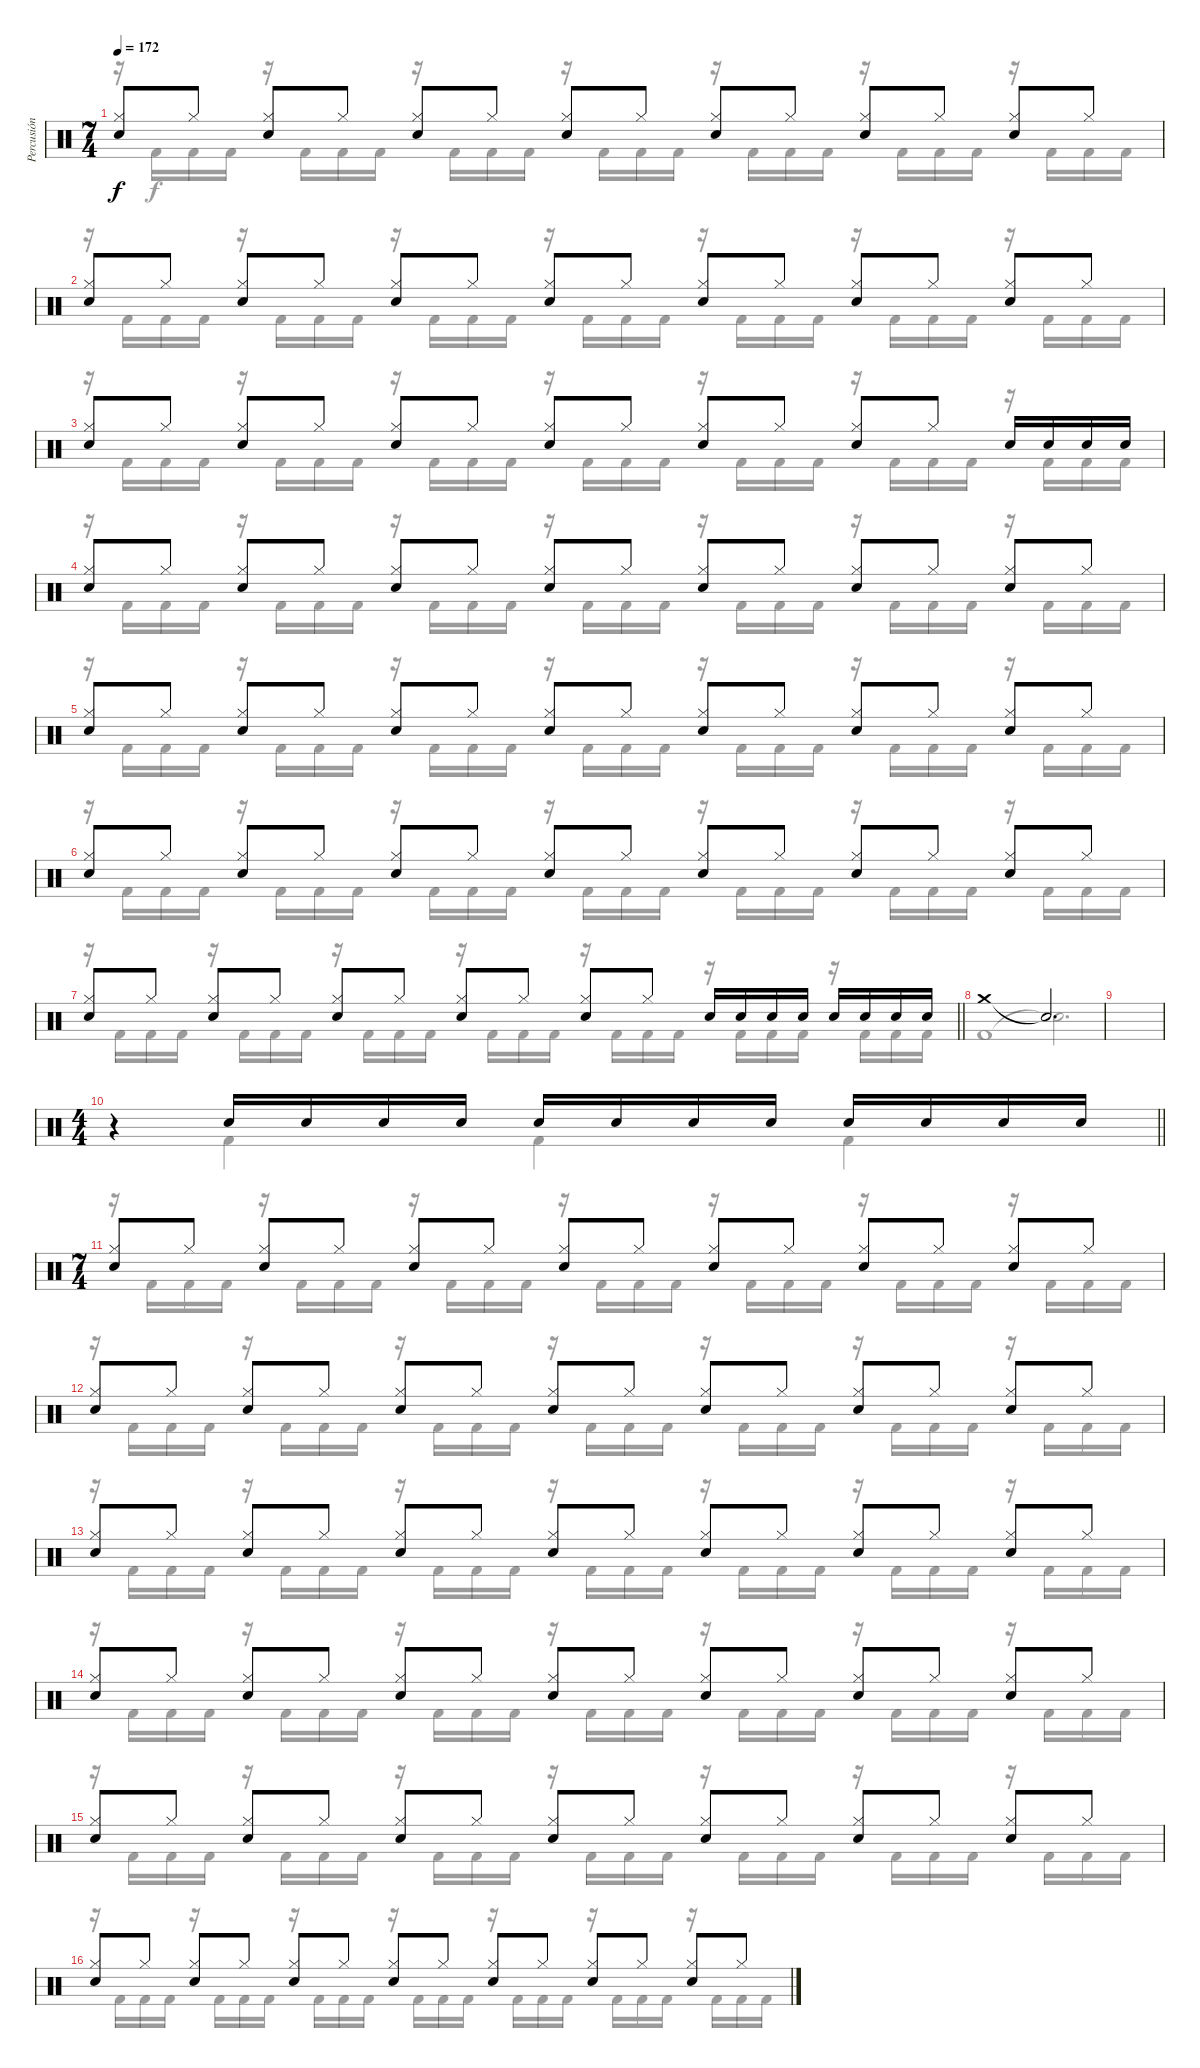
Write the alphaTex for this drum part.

\track ("Percusión" "Percusión") {instrument percussion}
\staff {score}
\articulation defaults
\voice
\ts (7 4)
\tempo 172
\clef neutral
\ks c
("Hi-Hat (closed)" "Snare (hit) 2").8{dy f} "Hi-Hat (closed)".8 ("Hi-Hat (closed)" "Snare (hit) 2").8 "Hi-Hat (closed)".8 ("Hi-Hat (closed)" "Snare (hit) 2").8 "Hi-Hat (closed)".8 ("Hi-Hat (closed)" "Snare (hit) 2").8 "Hi-Hat (closed)".8 ("Hi-Hat (closed)" "Snare (hit) 2").8 "Hi-Hat (closed)".8 ("Hi-Hat (closed)" "Snare (hit) 2").8 "Hi-Hat (closed)".8 ("Hi-Hat (closed)" "Snare (hit) 2").8 "Hi-Hat (closed)".8 |
("Hi-Hat (closed)" "Snare (hit) 2").8 "Hi-Hat (closed)".8 ("Hi-Hat (closed)" "Snare (hit) 2").8 "Hi-Hat (closed)".8 ("Hi-Hat (closed)" "Snare (hit) 2").8 "Hi-Hat (closed)".8 ("Hi-Hat (closed)" "Snare (hit) 2").8 "Hi-Hat (closed)".8 ("Hi-Hat (closed)" "Snare (hit) 2").8 "Hi-Hat (closed)".8 ("Hi-Hat (closed)" "Snare (hit) 2").8 "Hi-Hat (closed)".8 ("Hi-Hat (closed)" "Snare (hit) 2").8 "Hi-Hat (closed)".8 |
("Hi-Hat (closed)" "Snare (hit) 2").8 "Hi-Hat (closed)".8 ("Hi-Hat (closed)" "Snare (hit) 2").8 "Hi-Hat (closed)".8 ("Hi-Hat (closed)" "Snare (hit) 2").8 "Hi-Hat (closed)".8 ("Hi-Hat (closed)" "Snare (hit) 2").8 "Hi-Hat (closed)".8 ("Hi-Hat (closed)" "Snare (hit) 2").8 "Hi-Hat (closed)".8 ("Hi-Hat (closed)" "Snare (hit) 2").8 "Hi-Hat (closed)".8 "Snare (hit) 2".16 "Snare (hit) 2".16 "Snare (hit) 2".16 "Snare (hit) 2".16 |
("Hi-Hat (closed)" "Snare (hit) 2").8 "Hi-Hat (closed)".8 ("Hi-Hat (closed)" "Snare (hit) 2").8 "Hi-Hat (closed)".8 ("Hi-Hat (closed)" "Snare (hit) 2").8 "Hi-Hat (closed)".8 ("Hi-Hat (closed)" "Snare (hit) 2").8 "Hi-Hat (closed)".8 ("Hi-Hat (closed)" "Snare (hit) 2").8 "Hi-Hat (closed)".8 ("Hi-Hat (closed)" "Snare (hit) 2").8 "Hi-Hat (closed)".8 ("Hi-Hat (closed)" "Snare (hit) 2").8 "Hi-Hat (closed)".8 |
("Hi-Hat (closed)" "Snare (hit) 2").8 "Hi-Hat (closed)".8 ("Hi-Hat (closed)" "Snare (hit) 2").8 "Hi-Hat (closed)".8 ("Hi-Hat (closed)" "Snare (hit) 2").8 "Hi-Hat (closed)".8 ("Hi-Hat (closed)" "Snare (hit) 2").8 "Hi-Hat (closed)".8 ("Hi-Hat (closed)" "Snare (hit) 2").8 "Hi-Hat (closed)".8 ("Hi-Hat (closed)" "Snare (hit) 2").8 "Hi-Hat (closed)".8 ("Hi-Hat (closed)" "Snare (hit) 2").8 "Hi-Hat (closed)".8 |
("Hi-Hat (closed)" "Snare (hit) 2").8 "Hi-Hat (closed)".8 ("Hi-Hat (closed)" "Snare (hit) 2").8 "Hi-Hat (closed)".8 ("Hi-Hat (closed)" "Snare (hit) 2").8 "Hi-Hat (closed)".8 ("Hi-Hat (closed)" "Snare (hit) 2").8 "Hi-Hat (closed)".8 ("Hi-Hat (closed)" "Snare (hit) 2").8 "Hi-Hat (closed)".8 ("Hi-Hat (closed)" "Snare (hit) 2").8 "Hi-Hat (closed)".8 ("Hi-Hat (closed)" "Snare (hit) 2").8 "Hi-Hat (closed)".8 |
\barLineRight lightlight
("Hi-Hat (closed)" "Snare (hit) 2").8 "Hi-Hat (closed)".8 ("Hi-Hat (closed)" "Snare (hit) 2").8 "Hi-Hat (closed)".8 ("Hi-Hat (closed)" "Snare (hit) 2").8 "Hi-Hat (closed)".8 ("Hi-Hat (closed)" "Snare (hit) 2").8 "Hi-Hat (closed)".8 ("Hi-Hat (closed)" "Snare (hit) 2").8 "Hi-Hat (closed)".8 "Snare (hit) 2".16 "Snare (hit) 2".16 "Snare (hit) 2".16 "Snare (hit) 2".16 "Snare (hit) 2".16 "Snare (hit) 2".16 "Snare (hit) 2".16 "Snare (hit) 2".16 |
"Crash medium (hit)".1 "Snare (hit)"{t}.2{d} |
|
\ts (4 4)
\barLineRight lightlight
r.4 "Snare (hit) 2".16 "Snare (hit) 2".16 "Snare (hit) 2".16 "Snare (hit) 2".16 "Snare (hit) 2".16 "Snare (hit) 2".16 "Snare (hit) 2".16 "Snare (hit) 2".16 "Snare (hit) 2".16 "Snare (hit) 2".16 "Snare (hit) 2".16 "Snare (hit) 2".16 |
\ts (7 4)
("Hi-Hat (closed)" "Snare (hit) 2").8 "Hi-Hat (closed)".8 ("Hi-Hat (closed)" "Snare (hit) 2").8 "Hi-Hat (closed)".8 ("Hi-Hat (closed)" "Snare (hit) 2").8 "Hi-Hat (closed)".8 ("Hi-Hat (closed)" "Snare (hit) 2").8 "Hi-Hat (closed)".8 ("Hi-Hat (closed)" "Snare (hit) 2").8 "Hi-Hat (closed)".8 ("Hi-Hat (closed)" "Snare (hit) 2").8 "Hi-Hat (closed)".8 ("Hi-Hat (closed)" "Snare (hit) 2").8 "Hi-Hat (closed)".8 |
("Hi-Hat (closed)" "Snare (hit) 2").8 "Hi-Hat (closed)".8 ("Hi-Hat (closed)" "Snare (hit) 2").8 "Hi-Hat (closed)".8 ("Hi-Hat (closed)" "Snare (hit) 2").8 "Hi-Hat (closed)".8 ("Hi-Hat (closed)" "Snare (hit) 2").8 "Hi-Hat (closed)".8 ("Hi-Hat (closed)" "Snare (hit) 2").8 "Hi-Hat (closed)".8 ("Hi-Hat (closed)" "Snare (hit) 2").8 "Hi-Hat (closed)".8 ("Hi-Hat (closed)" "Snare (hit) 2").8 "Hi-Hat (closed)".8 |
("Hi-Hat (closed)" "Snare (hit) 2").8 "Hi-Hat (closed)".8 ("Hi-Hat (closed)" "Snare (hit) 2").8 "Hi-Hat (closed)".8 ("Hi-Hat (closed)" "Snare (hit) 2").8 "Hi-Hat (closed)".8 ("Hi-Hat (closed)" "Snare (hit) 2").8 "Hi-Hat (closed)".8 ("Hi-Hat (closed)" "Snare (hit) 2").8 "Hi-Hat (closed)".8 ("Hi-Hat (closed)" "Snare (hit) 2").8 "Hi-Hat (closed)".8 ("Hi-Hat (closed)" "Snare (hit) 2").8 "Hi-Hat (closed)".8 |
("Hi-Hat (closed)" "Snare (hit) 2").8 "Hi-Hat (closed)".8 ("Hi-Hat (closed)" "Snare (hit) 2").8 "Hi-Hat (closed)".8 ("Hi-Hat (closed)" "Snare (hit) 2").8 "Hi-Hat (closed)".8 ("Hi-Hat (closed)" "Snare (hit) 2").8 "Hi-Hat (closed)".8 ("Hi-Hat (closed)" "Snare (hit) 2").8 "Hi-Hat (closed)".8 ("Hi-Hat (closed)" "Snare (hit) 2").8 "Hi-Hat (closed)".8 ("Hi-Hat (closed)" "Snare (hit) 2").8 "Hi-Hat (closed)".8 |
("Hi-Hat (closed)" "Snare (hit) 2").8 "Hi-Hat (closed)".8 ("Hi-Hat (closed)" "Snare (hit) 2").8 "Hi-Hat (closed)".8 ("Hi-Hat (closed)" "Snare (hit) 2").8 "Hi-Hat (closed)".8 ("Hi-Hat (closed)" "Snare (hit) 2").8 "Hi-Hat (closed)".8 ("Hi-Hat (closed)" "Snare (hit) 2").8 "Hi-Hat (closed)".8 ("Hi-Hat (closed)" "Snare (hit) 2").8 "Hi-Hat (closed)".8 ("Hi-Hat (closed)" "Snare (hit) 2").8 "Hi-Hat (closed)".8 |
("Hi-Hat (closed)" "Snare (hit) 2").8 "Hi-Hat (closed)".8 ("Hi-Hat (closed)" "Snare (hit) 2").8 "Hi-Hat (closed)".8 ("Hi-Hat (closed)" "Snare (hit) 2").8 "Hi-Hat (closed)".8 ("Hi-Hat (closed)" "Snare (hit) 2").8 "Hi-Hat (closed)".8 ("Hi-Hat (closed)" "Snare (hit) 2").8 "Hi-Hat (closed)".8 ("Hi-Hat (closed)" "Snare (hit) 2").8 "Hi-Hat (closed)".8 ("Hi-Hat (closed)" "Snare (hit) 2").8 "Hi-Hat (closed)".8
\voice
\clef neutral
\ottava regular
\simile none
\ks c
r.16{dy f} "Kick (hit) 2".16 "Kick (hit) 2".16 "Kick (hit) 2".16 r.16 "Kick (hit) 2".16 "Kick (hit) 2".16 "Kick (hit) 2".16 r.16 "Kick (hit) 2".16 "Kick (hit) 2".16 "Kick (hit) 2".16 r.16 "Kick (hit) 2".16 "Kick (hit) 2".16 "Kick (hit) 2".16 r.16 "Kick (hit) 2".16 "Kick (hit) 2".16 "Kick (hit) 2".16 r.16 "Kick (hit) 2".16 "Kick (hit) 2".16 "Kick (hit) 2".16 r.16 "Kick (hit) 2".16 "Kick (hit) 2".16 "Kick (hit) 2".16 |
r.16 "Kick (hit) 2".16 "Kick (hit) 2".16 "Kick (hit) 2".16 r.16 "Kick (hit) 2".16 "Kick (hit) 2".16 "Kick (hit) 2".16 r.16 "Kick (hit) 2".16 "Kick (hit) 2".16 "Kick (hit) 2".16 r.16 "Kick (hit) 2".16 "Kick (hit) 2".16 "Kick (hit) 2".16 r.16 "Kick (hit) 2".16 "Kick (hit) 2".16 "Kick (hit) 2".16 r.16 "Kick (hit) 2".16 "Kick (hit) 2".16 "Kick (hit) 2".16 r.16 "Kick (hit) 2".16 "Kick (hit) 2".16 "Kick (hit) 2".16 |
r.16 "Kick (hit) 2".16 "Kick (hit) 2".16 "Kick (hit) 2".16 r.16 "Kick (hit) 2".16 "Kick (hit) 2".16 "Kick (hit) 2".16 r.16 "Kick (hit) 2".16 "Kick (hit) 2".16 "Kick (hit) 2".16 r.16 "Kick (hit) 2".16 "Kick (hit) 2".16 "Kick (hit) 2".16 r.16 "Kick (hit) 2".16 "Kick (hit) 2".16 "Kick (hit) 2".16 r.16 "Kick (hit) 2".16 "Kick (hit) 2".16 "Kick (hit) 2".16 r.16 "Kick (hit) 2".16 "Kick (hit) 2".16 "Kick (hit) 2".16 |
r.16 "Kick (hit) 2".16 "Kick (hit) 2".16 "Kick (hit) 2".16 r.16 "Kick (hit) 2".16 "Kick (hit) 2".16 "Kick (hit) 2".16 r.16 "Kick (hit) 2".16 "Kick (hit) 2".16 "Kick (hit) 2".16 r.16 "Kick (hit) 2".16 "Kick (hit) 2".16 "Kick (hit) 2".16 r.16 "Kick (hit) 2".16 "Kick (hit) 2".16 "Kick (hit) 2".16 r.16 "Kick (hit) 2".16 "Kick (hit) 2".16 "Kick (hit) 2".16 r.16 "Kick (hit) 2".16 "Kick (hit) 2".16 "Kick (hit) 2".16 |
r.16 "Kick (hit) 2".16 "Kick (hit) 2".16 "Kick (hit) 2".16 r.16 "Kick (hit) 2".16 "Kick (hit) 2".16 "Kick (hit) 2".16 r.16 "Kick (hit) 2".16 "Kick (hit) 2".16 "Kick (hit) 2".16 r.16 "Kick (hit) 2".16 "Kick (hit) 2".16 "Kick (hit) 2".16 r.16 "Kick (hit) 2".16 "Kick (hit) 2".16 "Kick (hit) 2".16 r.16 "Kick (hit) 2".16 "Kick (hit) 2".16 "Kick (hit) 2".16 r.16 "Kick (hit) 2".16 "Kick (hit) 2".16 "Kick (hit) 2".16 |
r.16 "Kick (hit) 2".16 "Kick (hit) 2".16 "Kick (hit) 2".16 r.16 "Kick (hit) 2".16 "Kick (hit) 2".16 "Kick (hit) 2".16 r.16 "Kick (hit) 2".16 "Kick (hit) 2".16 "Kick (hit) 2".16 r.16 "Kick (hit) 2".16 "Kick (hit) 2".16 "Kick (hit) 2".16 r.16 "Kick (hit) 2".16 "Kick (hit) 2".16 "Kick (hit) 2".16 r.16 "Kick (hit) 2".16 "Kick (hit) 2".16 "Kick (hit) 2".16 r.16 "Kick (hit) 2".16 "Kick (hit) 2".16 "Kick (hit) 2".16 |
\barLineRight lightlight
r.16 "Kick (hit) 2".16 "Kick (hit) 2".16 "Kick (hit) 2".16 r.16 "Kick (hit) 2".16 "Kick (hit) 2".16 "Kick (hit) 2".16 r.16 "Kick (hit) 2".16 "Kick (hit) 2".16 "Kick (hit) 2".16 r.16 "Kick (hit) 2".16 "Kick (hit) 2".16 "Kick (hit) 2".16 r.16 "Kick (hit) 2".16 "Kick (hit) 2".16 "Kick (hit) 2".16 r.16 "Kick (hit) 2".16 "Kick (hit) 2".16 "Kick (hit) 2".16 r.16 "Kick (hit) 2".16 "Kick (hit) 2".16 "Kick (hit) 2".16 |
"Kick (hit) 2".1 "Snare (hit)"{t}.2{d} |
|
\barLineRight lightlight
r.4 "Kick (hit) 2".4 "Kick (hit) 2".4 "Kick (hit) 2".4 |
r.16 "Kick (hit) 2".16 "Kick (hit) 2".16 "Kick (hit) 2".16 r.16 "Kick (hit) 2".16 "Kick (hit) 2".16 "Kick (hit) 2".16 r.16 "Kick (hit) 2".16 "Kick (hit) 2".16 "Kick (hit) 2".16 r.16 "Kick (hit) 2".16 "Kick (hit) 2".16 "Kick (hit) 2".16 r.16 "Kick (hit) 2".16 "Kick (hit) 2".16 "Kick (hit) 2".16 r.16 "Kick (hit) 2".16 "Kick (hit) 2".16 "Kick (hit) 2".16 r.16 "Kick (hit) 2".16 "Kick (hit) 2".16 "Kick (hit) 2".16 |
r.16 "Kick (hit) 2".16 "Kick (hit) 2".16 "Kick (hit) 2".16 r.16 "Kick (hit) 2".16 "Kick (hit) 2".16 "Kick (hit) 2".16 r.16 "Kick (hit) 2".16 "Kick (hit) 2".16 "Kick (hit) 2".16 r.16 "Kick (hit) 2".16 "Kick (hit) 2".16 "Kick (hit) 2".16 r.16 "Kick (hit) 2".16 "Kick (hit) 2".16 "Kick (hit) 2".16 r.16 "Kick (hit) 2".16 "Kick (hit) 2".16 "Kick (hit) 2".16 r.16 "Kick (hit) 2".16 "Kick (hit) 2".16 "Kick (hit) 2".16 |
r.16 "Kick (hit) 2".16 "Kick (hit) 2".16 "Kick (hit) 2".16 r.16 "Kick (hit) 2".16 "Kick (hit) 2".16 "Kick (hit) 2".16 r.16 "Kick (hit) 2".16 "Kick (hit) 2".16 "Kick (hit) 2".16 r.16 "Kick (hit) 2".16 "Kick (hit) 2".16 "Kick (hit) 2".16 r.16 "Kick (hit) 2".16 "Kick (hit) 2".16 "Kick (hit) 2".16 r.16 "Kick (hit) 2".16 "Kick (hit) 2".16 "Kick (hit) 2".16 r.16 "Kick (hit) 2".16 "Kick (hit) 2".16 "Kick (hit) 2".16 |
r.16 "Kick (hit) 2".16 "Kick (hit) 2".16 "Kick (hit) 2".16 r.16 "Kick (hit) 2".16 "Kick (hit) 2".16 "Kick (hit) 2".16 r.16 "Kick (hit) 2".16 "Kick (hit) 2".16 "Kick (hit) 2".16 r.16 "Kick (hit) 2".16 "Kick (hit) 2".16 "Kick (hit) 2".16 r.16 "Kick (hit) 2".16 "Kick (hit) 2".16 "Kick (hit) 2".16 r.16 "Kick (hit) 2".16 "Kick (hit) 2".16 "Kick (hit) 2".16 r.16 "Kick (hit) 2".16 "Kick (hit) 2".16 "Kick (hit) 2".16 |
r.16 "Kick (hit) 2".16 "Kick (hit) 2".16 "Kick (hit) 2".16 r.16 "Kick (hit) 2".16 "Kick (hit) 2".16 "Kick (hit) 2".16 r.16 "Kick (hit) 2".16 "Kick (hit) 2".16 "Kick (hit) 2".16 r.16 "Kick (hit) 2".16 "Kick (hit) 2".16 "Kick (hit) 2".16 r.16 "Kick (hit) 2".16 "Kick (hit) 2".16 "Kick (hit) 2".16 r.16 "Kick (hit) 2".16 "Kick (hit) 2".16 "Kick (hit) 2".16 r.16 "Kick (hit) 2".16 "Kick (hit) 2".16 "Kick (hit) 2".16 |
r.16 "Kick (hit) 2".16 "Kick (hit) 2".16 "Kick (hit) 2".16 r.16 "Kick (hit) 2".16 "Kick (hit) 2".16 "Kick (hit) 2".16 r.16 "Kick (hit) 2".16 "Kick (hit) 2".16 "Kick (hit) 2".16 r.16 "Kick (hit) 2".16 "Kick (hit) 2".16 "Kick (hit) 2".16 r.16 "Kick (hit) 2".16 "Kick (hit) 2".16 "Kick (hit) 2".16 r.16 "Kick (hit) 2".16 "Kick (hit) 2".16 "Kick (hit) 2".16 r.16 "Kick (hit) 2".16 "Kick (hit) 2".16 "Kick (hit) 2".16
